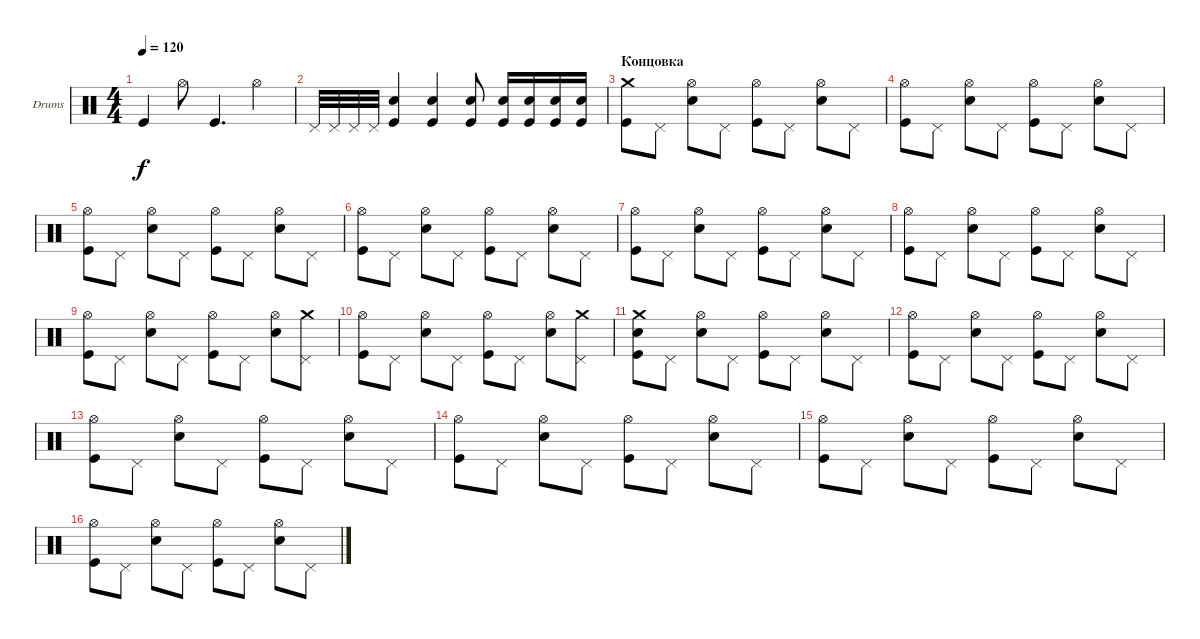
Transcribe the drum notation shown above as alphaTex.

\defaultSystemsLayout 4
\bracketExtendMode groupsimilarinstruments
\firstSystemTrackNameOrientation horizontal
\otherSystemsTrackNameOrientation horizontal
\track ("Е. Кулаков" "Drums") {instrument percussion}
\staff {score}
\articulation defaults
\ts (4 4)
\tempo 120
\clef neutral
\ks c "Kick (hit)".4{dy f} "Hi-Hat (open)".8 "Kick (hit)".4{d} "Hi-Hat (open)".4
|
"Pedal Hi-Hat (hit)".32 "Pedal Hi-Hat (hit)".32 "Pedal Hi-Hat (hit)".32 "Pedal Hi-Hat (hit)".32 ("Kick (hit)" "Snare (hit) 2").4 ("Kick (hit)" "Snare (hit) 2").4 ("Kick (hit)" "Snare (hit) 2").8 ("Kick (hit)" "Snare (hit) 2").16 ("Kick (hit)" "Snare (hit) 2").16 ("Kick (hit)" "Snare (hit) 2").16 ("Kick (hit)" "Snare (hit) 2").16 |
\section ("" "Концовка")
("Kick (hit)" "Crash medium (hit)").8 "Pedal Hi-Hat (hit)".8 ("Snare (hit) 2" "Hi-Hat (open)").8 "Pedal Hi-Hat (hit)".8 ("Kick (hit)" "Hi-Hat (open)").8 "Pedal Hi-Hat (hit)".8 ("Snare (hit) 2" "Hi-Hat (open)").8 "Pedal Hi-Hat (hit)".8 |
("Kick (hit)" "Hi-Hat (open)").8 "Pedal Hi-Hat (hit)".8 ("Snare (hit) 2" "Hi-Hat (open)").8 "Pedal Hi-Hat (hit)".8 ("Kick (hit)" "Hi-Hat (open)").8 "Pedal Hi-Hat (hit)".8 ("Snare (hit) 2" "Hi-Hat (open)").8 "Pedal Hi-Hat (hit)".8 |
("Kick (hit)" "Hi-Hat (open)").8 "Pedal Hi-Hat (hit)".8 ("Snare (hit) 2" "Hi-Hat (open)").8 "Pedal Hi-Hat (hit)".8 ("Kick (hit)" "Hi-Hat (open)").8 "Pedal Hi-Hat (hit)".8 ("Snare (hit) 2" "Hi-Hat (open)").8 "Pedal Hi-Hat (hit)".8 |
("Kick (hit)" "Hi-Hat (open)").8 "Pedal Hi-Hat (hit)".8 ("Snare (hit) 2" "Hi-Hat (open)").8 "Pedal Hi-Hat (hit)".8 ("Kick (hit)" "Hi-Hat (open)").8 "Pedal Hi-Hat (hit)".8 ("Snare (hit) 2" "Hi-Hat (open)").8 "Pedal Hi-Hat (hit)".8 |
("Kick (hit)" "Hi-Hat (open)").8 "Pedal Hi-Hat (hit)".8 ("Snare (hit) 2" "Hi-Hat (open)").8 "Pedal Hi-Hat (hit)".8 ("Kick (hit)" "Hi-Hat (open)").8 "Pedal Hi-Hat (hit)".8 ("Snare (hit) 2" "Hi-Hat (open)").8 "Pedal Hi-Hat (hit)".8 |
("Kick (hit)" "Hi-Hat (open)").8 "Pedal Hi-Hat (hit)".8 ("Snare (hit) 2" "Hi-Hat (open)").8 "Pedal Hi-Hat (hit)".8 ("Kick (hit)" "Hi-Hat (open)").8 "Pedal Hi-Hat (hit)".8 ("Snare (hit) 2" "Hi-Hat (open)").8 "Pedal Hi-Hat (hit)".8 |
("Kick (hit)" "Hi-Hat (open)").8 "Pedal Hi-Hat (hit)".8 ("Snare (hit) 2" "Hi-Hat (open)").8 "Pedal Hi-Hat (hit)".8 ("Kick (hit)" "Hi-Hat (open)").8 "Pedal Hi-Hat (hit)".8 ("Snare (hit) 2" "Hi-Hat (open)").8 ("Pedal Hi-Hat (hit)" "Crash medium (hit)").8 |
("Kick (hit)" "Hi-Hat (open)").8 "Pedal Hi-Hat (hit)".8 ("Snare (hit) 2" "Hi-Hat (open)").8 "Pedal Hi-Hat (hit)".8 ("Kick (hit)" "Hi-Hat (open)").8 "Pedal Hi-Hat (hit)".8 ("Snare (hit) 2" "Hi-Hat (open)").8 ("Pedal Hi-Hat (hit)" "Crash medium (hit)").8 |
("Kick (hit)" "Crash medium (hit)" "Snare (hit) 2").8 "Pedal Hi-Hat (hit)".8 ("Snare (hit) 2" "Hi-Hat (open)").8 "Pedal Hi-Hat (hit)".8 ("Kick (hit)" "Hi-Hat (open)").8 "Pedal Hi-Hat (hit)".8 ("Snare (hit) 2" "Hi-Hat (open)").8 "Pedal Hi-Hat (hit)".8 |
("Kick (hit)" "Hi-Hat (open)").8 "Pedal Hi-Hat (hit)".8 ("Snare (hit) 2" "Hi-Hat (open)").8 "Pedal Hi-Hat (hit)".8 ("Kick (hit)" "Hi-Hat (open)").8 "Pedal Hi-Hat (hit)".8 ("Snare (hit) 2" "Hi-Hat (open)").8 "Pedal Hi-Hat (hit)".8 |
("Kick (hit)" "Hi-Hat (open)").8 "Pedal Hi-Hat (hit)".8 ("Snare (hit) 2" "Hi-Hat (open)").8 "Pedal Hi-Hat (hit)".8 ("Kick (hit)" "Hi-Hat (open)").8 "Pedal Hi-Hat (hit)".8 ("Snare (hit) 2" "Hi-Hat (open)").8 "Pedal Hi-Hat (hit)".8 |
("Kick (hit)" "Hi-Hat (open)").8 "Pedal Hi-Hat (hit)".8 ("Snare (hit) 2" "Hi-Hat (open)").8 "Pedal Hi-Hat (hit)".8 ("Kick (hit)" "Hi-Hat (open)").8 "Pedal Hi-Hat (hit)".8 ("Snare (hit) 2" "Hi-Hat (open)").8 "Pedal Hi-Hat (hit)".8 |
("Kick (hit)" "Hi-Hat (open)").8 "Pedal Hi-Hat (hit)".8 ("Snare (hit) 2" "Hi-Hat (open)").8 "Pedal Hi-Hat (hit)".8 ("Kick (hit)" "Hi-Hat (open)").8 "Pedal Hi-Hat (hit)".8 ("Snare (hit) 2" "Hi-Hat (open)").8 "Pedal Hi-Hat (hit)".8 |
("Kick (hit)" "Hi-Hat (open)").8 "Pedal Hi-Hat (hit)".8 ("Snare (hit) 2" "Hi-Hat (open)").8 "Pedal Hi-Hat (hit)".8 ("Kick (hit)" "Hi-Hat (open)").8 "Pedal Hi-Hat (hit)".8 ("Snare (hit) 2" "Hi-Hat (open)").8 "Pedal Hi-Hat (hit)".8
